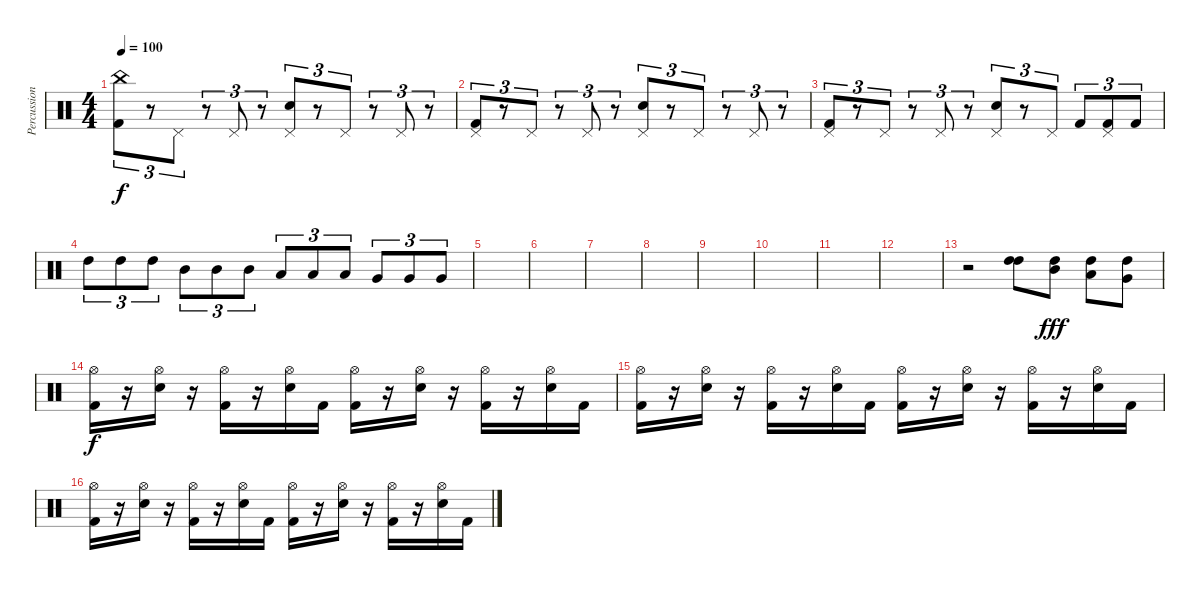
\track ("Percussions" "Percussion") {instrument percussion}
\staff {score}
\articulation defaults
\ts (4 4)
\tempo 100
\clef neutral
\ks c
("China (hit)" "Kick (hit) 2").8{tu (3 2) dy f} r.8{tu (3 2)} "Pedal Hi-Hat (hit)".8{tu (3 2)} r.8{tu (3 2)} "Pedal Hi-Hat (hit)".8{tu (3 2)} r.8{tu (3 2)} ("Pedal Hi-Hat (hit)" "Electric Snare (hit)").8{tu (3 2)} r.8{tu (3 2)} "Pedal Hi-Hat (hit)".8{tu (3 2)} r.8{tu (3 2)} "Pedal Hi-Hat (hit)".8{tu (3 2)} r.8{tu (3 2)} |
("Pedal Hi-Hat (hit)" "Kick (hit) 2").8{tu (3 2)} r.8{tu (3 2)} "Pedal Hi-Hat (hit)".8{tu (3 2)} r.8{tu (3 2)} "Pedal Hi-Hat (hit)".8{tu (3 2)} r.8{tu (3 2)} ("Pedal Hi-Hat (hit)" "Electric Snare (hit)").8{tu (3 2)} r.8{tu (3 2)} "Pedal Hi-Hat (hit)".8{tu (3 2)} r.8{tu (3 2)} "Pedal Hi-Hat (hit)".8{tu (3 2)} r.8{tu (3 2)} |
("Pedal Hi-Hat (hit)" "Kick (hit) 2").8{tu (3 2)} r.8{tu (3 2)} "Pedal Hi-Hat (hit)".8{tu (3 2)} r.8{tu (3 2)} "Pedal Hi-Hat (hit)".8{tu (3 2)} r.8{tu (3 2)} ("Pedal Hi-Hat (hit)" "Electric Snare (hit)").8{tu (3 2)} r.8{tu (3 2)} "Pedal Hi-Hat (hit)".8{tu (3 2)} "Kick (hit) 2".8{tu (3 2)} ("Pedal Hi-Hat (hit)" "Kick (hit) 2").8{tu (3 2)} "Kick (hit) 2".8{tu (3 2)} |
"High Tom (hit)".8{tu (3 2)} "High Tom (hit)".8{tu (3 2)} "High Tom (hit)".8{tu (3 2)} "Mid Tom (hit)".8{tu (3 2)} "Mid Tom (hit)".8{tu (3 2)} "Mid Tom (hit)".8{tu (3 2)} "Low Tom (hit)".8{tu (3 2)} "Low Tom (hit)".8{tu (3 2)} "Low Tom (hit)".8{tu (3 2)} "Very Low Tom (hit)".8{tu (3 2)} "Very Low Tom (hit)".8{tu (3 2)} "Very Low Tom (hit)".8{tu (3 2)} |
|
|
|
|
|
|
|
|
r.2 ("High Tom (hit)" "High Tom (hit)").8 ("Mid Tom (hit)" "High Tom (hit)").8{dy fff} ("Low Tom (hit)" "High Tom (hit)").8 ("Very Low Tom (hit)" "High Tom (hit)").8 |
("Hi-Hat (open)" "Kick (hit) 2").16{dy f} r.16 ("Hi-Hat (open)" "Electric Snare (hit)").16 r.16 ("Hi-Hat (open)" "Kick (hit) 2").16 r.16 ("Hi-Hat (open)" "Electric Snare (hit)").16 "Kick (hit) 2".16 ("Hi-Hat (open)" "Kick (hit) 2").16 r.16 ("Hi-Hat (open)" "Electric Snare (hit)").16 r.16 ("Hi-Hat (open)" "Kick (hit) 2").16 r.16 ("Hi-Hat (open)" "Electric Snare (hit)").16 "Kick (hit) 2".16 |
("Hi-Hat (open)" "Kick (hit) 2").16 r.16 ("Hi-Hat (open)" "Electric Snare (hit)").16 r.16 ("Hi-Hat (open)" "Kick (hit) 2").16 r.16 ("Hi-Hat (open)" "Electric Snare (hit)").16 "Kick (hit) 2".16 ("Hi-Hat (open)" "Kick (hit) 2").16 r.16 ("Hi-Hat (open)" "Electric Snare (hit)").16 r.16 ("Hi-Hat (open)" "Kick (hit) 2").16 r.16 ("Hi-Hat (open)" "Electric Snare (hit)").16 "Kick (hit) 2".16 |
("Hi-Hat (open)" "Kick (hit) 2").16 r.16 ("Hi-Hat (open)" "Electric Snare (hit)").16 r.16 ("Hi-Hat (open)" "Kick (hit) 2").16 r.16 ("Hi-Hat (open)" "Electric Snare (hit)").16 "Kick (hit) 2".16 ("Hi-Hat (open)" "Kick (hit) 2").16 r.16 ("Hi-Hat (open)" "Electric Snare (hit)").16 r.16 ("Hi-Hat (open)" "Kick (hit) 2").16 r.16 ("Hi-Hat (open)" "Electric Snare (hit)").16 "Kick (hit) 2".16
